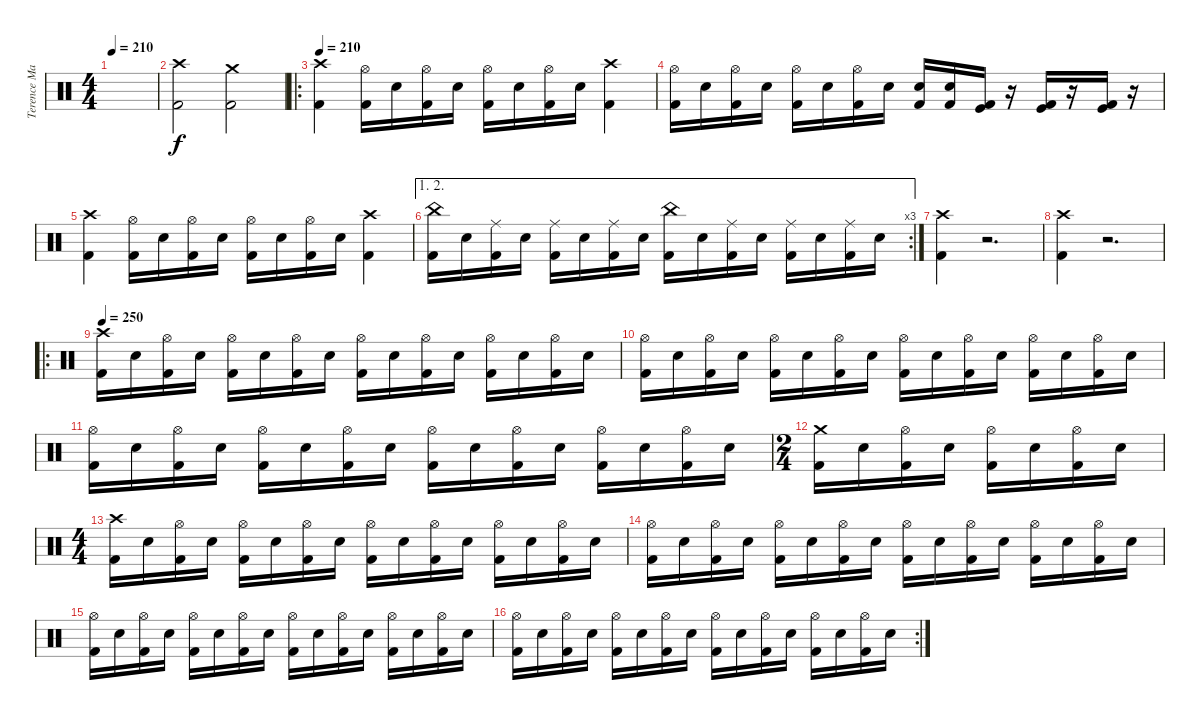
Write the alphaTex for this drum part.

\track ("Terence Manauis" "Terence Ma") {instrument percussion}
\staff {score}
\articulation defaults
\ts (4 4)
\tempo 210
\tempo 230
\tempo 210
\clef neutral
\ks c
|
("Crash high (hit)" "Kick (hit) 2").2 ("Crash medium (hit)" "Kick (hit) 2").2 |
\ro
\tempo 210
("Crash high (hit)" "Kick (hit) 2").4 ("Hi-Hat (open)" "Kick (hit) 2").16 "Electric Snare (hit)".16 ("Hi-Hat (open)" "Kick (hit) 2").16 "Electric Snare (hit)".16 ("Hi-Hat (open)" "Kick (hit) 2").16 "Electric Snare (hit)".16 ("Hi-Hat (open)" "Kick (hit) 2").16 "Electric Snare (hit)".16 ("Crash high (hit)" "Kick (hit) 2").4 |
("Hi-Hat (open)" "Kick (hit) 2").16 "Electric Snare (hit)".16 ("Hi-Hat (open)" "Kick (hit) 2").16 "Electric Snare (hit)".16 ("Hi-Hat (open)" "Kick (hit) 2").16 "Electric Snare (hit)".16 ("Hi-Hat (open)" "Kick (hit) 2").16 "Electric Snare (hit)".16 ("Electric Snare (hit)" "Kick (hit) 2").16 ("Electric Snare (hit)" "Kick (hit) 2").16 ("Kick (hit)" "Kick (hit) 2").16 r.16 ("Kick (hit)" "Kick (hit) 2").16 r.16 ("Kick (hit)" "Kick (hit) 2").16 r.16 |
("Crash high (hit)" "Kick (hit) 2").4 ("Hi-Hat (open)" "Kick (hit) 2").16 "Electric Snare (hit)".16 ("Hi-Hat (open)" "Kick (hit) 2").16 "Electric Snare (hit)".16 ("Hi-Hat (open)" "Kick (hit) 2").16 "Electric Snare (hit)".16 ("Hi-Hat (open)" "Kick (hit) 2").16 "Electric Snare (hit)".16 ("Crash high (hit)" "Kick (hit) 2").4 |
\ae (1 2)
\rc 3
("China (hit)" "Kick (hit) 2").16 "Electric Snare (hit)".16 ("Ride (middle)" "Kick (hit) 2").16 "Electric Snare (hit)".16 ("Ride (middle)" "Kick (hit) 2").16 "Electric Snare (hit)".16 ("Ride (middle)" "Kick (hit) 2").16 "Electric Snare (hit)".16 ("China (hit)" "Kick (hit) 2").16 "Electric Snare (hit)".16 ("Ride (middle)" "Kick (hit) 2").16 "Electric Snare (hit)".16 ("Ride (middle)" "Kick (hit) 2").16 "Electric Snare (hit)".16 ("Ride (middle)" "Kick (hit) 2").16 "Electric Snare (hit)".16 |
("Crash high (hit)" "Kick (hit) 2").4{volume 12} r.2{d volume 0} |
("Crash high (hit)" "Kick (hit) 2").4{volume 12} r.2{d volume 0} |
\ro
\tempo 250
("Crash high (hit)" "Kick (hit) 2").16{volume 12} "Electric Snare (hit)".16 ("Hi-Hat (open)" "Kick (hit) 2").16 "Electric Snare (hit)".16 ("Hi-Hat (open)" "Kick (hit) 2").16 "Electric Snare (hit)".16 ("Hi-Hat (open)" "Kick (hit) 2").16 "Electric Snare (hit)".16 ("Hi-Hat (open)" "Kick (hit) 2").16 "Electric Snare (hit)".16 ("Hi-Hat (open)" "Kick (hit) 2").16 "Electric Snare (hit)".16 ("Hi-Hat (open)" "Kick (hit) 2").16 "Electric Snare (hit)".16 ("Hi-Hat (open)" "Kick (hit) 2").16 "Electric Snare (hit)".16 |
("Hi-Hat (open)" "Kick (hit) 2").16 "Electric Snare (hit)".16 ("Hi-Hat (open)" "Kick (hit) 2").16 "Electric Snare (hit)".16 ("Hi-Hat (open)" "Kick (hit) 2").16 "Electric Snare (hit)".16 ("Hi-Hat (open)" "Kick (hit) 2").16 "Electric Snare (hit)".16 ("Hi-Hat (open)" "Kick (hit) 2").16 "Electric Snare (hit)".16 ("Hi-Hat (open)" "Kick (hit) 2").16 "Electric Snare (hit)".16 ("Hi-Hat (open)" "Kick (hit) 2").16 "Electric Snare (hit)".16 ("Hi-Hat (open)" "Kick (hit) 2").16 "Electric Snare (hit)".16 |
("Hi-Hat (open)" "Kick (hit) 2").16 "Electric Snare (hit)".16 ("Hi-Hat (open)" "Kick (hit) 2").16 "Electric Snare (hit)".16 ("Hi-Hat (open)" "Kick (hit) 2").16 "Electric Snare (hit)".16 ("Hi-Hat (open)" "Kick (hit) 2").16 "Electric Snare (hit)".16 ("Hi-Hat (open)" "Kick (hit) 2").16 "Electric Snare (hit)".16 ("Hi-Hat (open)" "Kick (hit) 2").16 "Electric Snare (hit)".16 ("Hi-Hat (open)" "Kick (hit) 2").16 "Electric Snare (hit)".16 ("Hi-Hat (open)" "Kick (hit) 2").16 "Electric Snare (hit)".16 |
\ts (2 4)
("Crash medium (hit)" "Kick (hit) 2").16 "Electric Snare (hit)".16 ("Hi-Hat (open)" "Kick (hit) 2").16 "Electric Snare (hit)".16 ("Hi-Hat (open)" "Kick (hit) 2").16 "Electric Snare (hit)".16 ("Hi-Hat (open)" "Kick (hit) 2").16 "Electric Snare (hit)".16 |
\ts (4 4)
("Crash high (hit)" "Kick (hit) 2").16 "Electric Snare (hit)".16 ("Hi-Hat (open)" "Kick (hit) 2").16 "Electric Snare (hit)".16 ("Hi-Hat (open)" "Kick (hit) 2").16 "Electric Snare (hit)".16 ("Hi-Hat (open)" "Kick (hit) 2").16 "Electric Snare (hit)".16 ("Hi-Hat (open)" "Kick (hit) 2").16 "Electric Snare (hit)".16 ("Hi-Hat (open)" "Kick (hit) 2").16 "Electric Snare (hit)".16 ("Hi-Hat (open)" "Kick (hit) 2").16 "Electric Snare (hit)".16 ("Hi-Hat (open)" "Kick (hit) 2").16 "Electric Snare (hit)".16 |
("Hi-Hat (open)" "Kick (hit) 2").16 "Electric Snare (hit)".16 ("Hi-Hat (open)" "Kick (hit) 2").16 "Electric Snare (hit)".16 ("Hi-Hat (open)" "Kick (hit) 2").16 "Electric Snare (hit)".16 ("Hi-Hat (open)" "Kick (hit) 2").16 "Electric Snare (hit)".16 ("Hi-Hat (open)" "Kick (hit) 2").16 "Electric Snare (hit)".16 ("Hi-Hat (open)" "Kick (hit) 2").16 "Electric Snare (hit)".16 ("Hi-Hat (open)" "Kick (hit) 2").16 "Electric Snare (hit)".16 ("Hi-Hat (open)" "Kick (hit) 2").16 "Electric Snare (hit)".16 |
("Hi-Hat (open)" "Kick (hit) 2").16 "Electric Snare (hit)".16 ("Hi-Hat (open)" "Kick (hit) 2").16 "Electric Snare (hit)".16 ("Hi-Hat (open)" "Kick (hit) 2").16 "Electric Snare (hit)".16 ("Hi-Hat (open)" "Kick (hit) 2").16 "Electric Snare (hit)".16 ("Hi-Hat (open)" "Kick (hit) 2").16 "Electric Snare (hit)".16 ("Hi-Hat (open)" "Kick (hit) 2").16 "Electric Snare (hit)".16 ("Hi-Hat (open)" "Kick (hit) 2").16 "Electric Snare (hit)".16 ("Hi-Hat (open)" "Kick (hit) 2").16 "Electric Snare (hit)".16 |
\rc 2
("Hi-Hat (open)" "Kick (hit) 2").16 "Electric Snare (hit)".16 ("Hi-Hat (open)" "Kick (hit) 2").16 "Electric Snare (hit)".16 ("Hi-Hat (open)" "Kick (hit) 2").16 "Electric Snare (hit)".16 ("Hi-Hat (open)" "Kick (hit) 2").16 "Electric Snare (hit)".16 ("Hi-Hat (open)" "Kick (hit) 2").16 "Electric Snare (hit)".16 ("Hi-Hat (open)" "Kick (hit) 2").16 "Electric Snare (hit)".16 ("Hi-Hat (open)" "Kick (hit) 2").16 "Electric Snare (hit)".16 ("Hi-Hat (open)" "Kick (hit) 2").16 "Electric Snare (hit)".16
